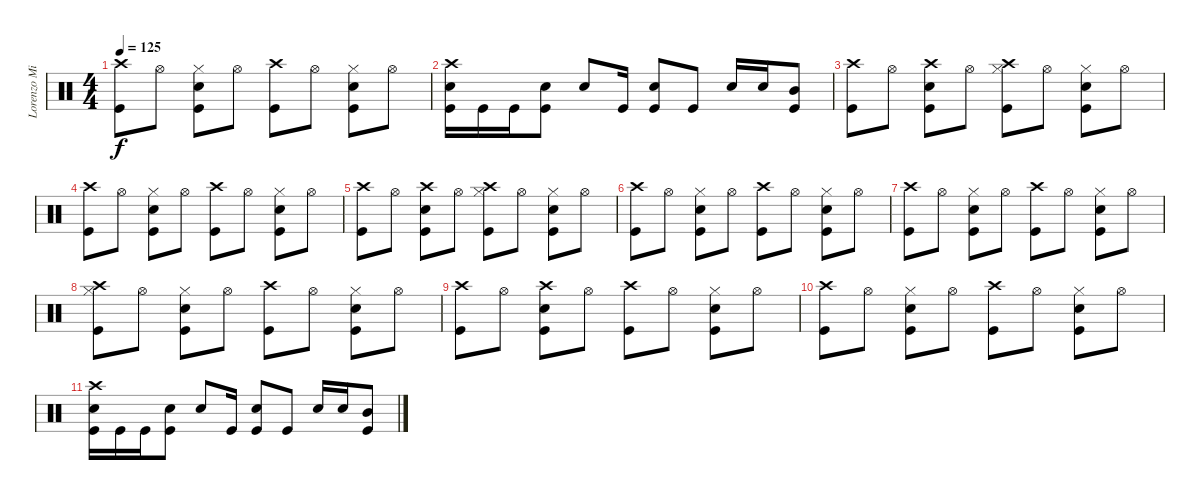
\track ("Lorenzo Milani - drums" "Lorenzo Mi") {instrument percussion}
\staff {score}
\articulation defaults
\ts (4 4)
\tempo 125
\clef neutral
\ks c
("Crash high (hit)" "Kick (hit)").8{dy f} "Hi-Hat (open)".8 ("Electric Snare (hit)" "Hi-Hat (closed)" "Kick (hit)").8 "Hi-Hat (open)".8 ("Crash high (hit)" "Kick (hit)").8 "Hi-Hat (open)".8 ("Electric Snare (hit)" "Hi-Hat (closed)" "Kick (hit)").8 "Hi-Hat (open)".8 |
("Crash high (hit)" "Electric Snare (hit)" "Kick (hit)").16 "Kick (hit)".16 "Kick (hit)".16 ("Electric Snare (hit)" "Kick (hit)").8 "Electric Snare (hit)".8 "Kick (hit)".16 ("Electric Snare (hit)" "Kick (hit)").8 "Kick (hit)".8 "Electric Snare (hit)".16 "Electric Snare (hit)".16 ("Mid Tom (hit)" "Kick (hit)").8 |
("Crash high (hit)" "Kick (hit)").8 "Hi-Hat (open)".8 ("Crash high (hit)" "Electric Snare (hit)" "Kick (hit)").8 "Hi-Hat (open)".8 ("Crash high (hit)" "Hi-Hat (closed)" "Kick (hit)").8 "Hi-Hat (open)".8 ("Electric Snare (hit)" "Hi-Hat (closed)" "Kick (hit)").8 "Hi-Hat (open)".8 |
("Crash high (hit)" "Kick (hit)").8 "Hi-Hat (open)".8 ("Electric Snare (hit)" "Hi-Hat (closed)" "Kick (hit)").8 "Hi-Hat (open)".8 ("Crash high (hit)" "Kick (hit)").8 "Hi-Hat (open)".8 ("Electric Snare (hit)" "Hi-Hat (closed)" "Kick (hit)").8 "Hi-Hat (open)".8 |
("Crash high (hit)" "Kick (hit)").8{volume 10} "Hi-Hat (open)".8 ("Crash high (hit)" "Electric Snare (hit)" "Kick (hit)").8 "Hi-Hat (open)".8 ("Crash high (hit)" "Hi-Hat (closed)" "Kick (hit)").8 "Hi-Hat (open)".8 ("Electric Snare (hit)" "Hi-Hat (closed)" "Kick (hit)").8 "Hi-Hat (open)".8 |
("Crash high (hit)" "Kick (hit)").8 "Hi-Hat (open)".8 ("Electric Snare (hit)" "Hi-Hat (closed)" "Kick (hit)").8 "Hi-Hat (open)".8 ("Crash high (hit)" "Kick (hit)").8 "Hi-Hat (open)".8 ("Electric Snare (hit)" "Hi-Hat (closed)" "Kick (hit)").8 "Hi-Hat (open)".8 |
("Crash high (hit)" "Kick (hit)").8{volume 6} "Hi-Hat (open)".8 ("Electric Snare (hit)" "Hi-Hat (closed)" "Kick (hit)").8 "Hi-Hat (open)".8 ("Crash high (hit)" "Kick (hit)").8 "Hi-Hat (open)".8 ("Electric Snare (hit)" "Hi-Hat (closed)" "Kick (hit)").8 "Hi-Hat (open)".8 |
("Crash high (hit)" "Hi-Hat (closed)" "Kick (hit)").8 "Hi-Hat (open)".8 ("Electric Snare (hit)" "Hi-Hat (closed)" "Kick (hit)").8 "Hi-Hat (open)".8 ("Crash high (hit)" "Kick (hit)").8 "Hi-Hat (open)".8 ("Electric Snare (hit)" "Hi-Hat (closed)" "Kick (hit)").8 "Hi-Hat (open)".8 |
("Crash high (hit)" "Kick (hit)").8{volume 0} "Hi-Hat (open)".8 ("Crash high (hit)" "Electric Snare (hit)" "Kick (hit)").8 "Hi-Hat (open)".8 ("Crash high (hit)" "Kick (hit)").8 "Hi-Hat (open)".8 ("Electric Snare (hit)" "Hi-Hat (closed)" "Kick (hit)").8 "Hi-Hat (open)".8 |
("Crash high (hit)" "Kick (hit)").8 "Hi-Hat (open)".8 ("Electric Snare (hit)" "Hi-Hat (closed)" "Kick (hit)").8 "Hi-Hat (open)".8 ("Crash high (hit)" "Kick (hit)").8 "Hi-Hat (open)".8 ("Electric Snare (hit)" "Hi-Hat (closed)" "Kick (hit)").8 "Hi-Hat (open)".8 |
("Crash high (hit)" "Electric Snare (hit)" "Kick (hit)").16 "Kick (hit)".16 "Kick (hit)".16 ("Electric Snare (hit)" "Kick (hit)").8 "Electric Snare (hit)".8 "Kick (hit)".16 ("Electric Snare (hit)" "Kick (hit)").8 "Kick (hit)".8 "Electric Snare (hit)".16 "Electric Snare (hit)".16 ("Mid Tom (hit)" "Kick (hit)").8
